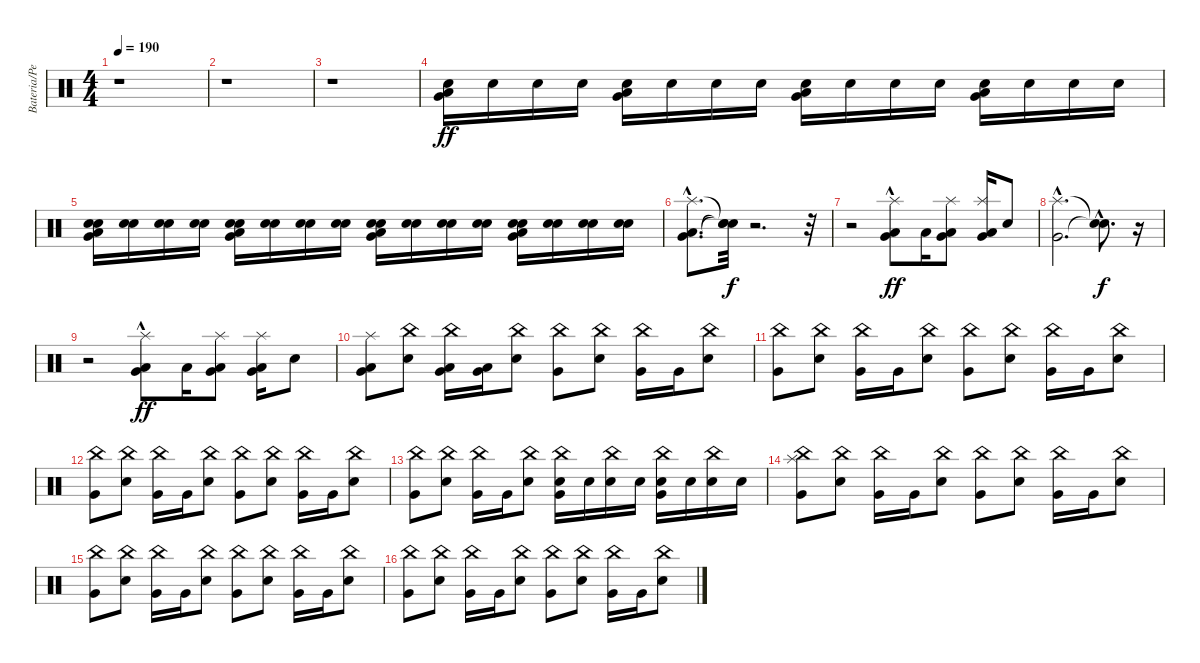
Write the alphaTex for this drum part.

\track ("Bateria/Percussion" "Bateria/Pe") {instrument percussion}
\staff {score}
\articulation defaults
\ts (4 4)
\tempo 190
\clef neutral
\ks c
r.1{dy ff} |
r.1 |
r.1 |
("Snare (hit) 2" "Very Low Tom (hit)" "Low Tom (hit)").16 "Snare (hit) 2".16 "Snare (hit) 2".16 "Snare (hit) 2".16 ("Snare (hit) 2" "Very Low Tom (hit)" "Low Tom (hit)").16 "Snare (hit) 2".16 "Snare (hit) 2".16 "Snare (hit) 2".16 ("Snare (hit) 2" "Very Low Tom (hit)" "Low Tom (hit)").16 "Snare (hit) 2".16 "Snare (hit) 2".16 "Snare (hit) 2".16 ("Snare (hit) 2" "Very Low Tom (hit)" "Low Tom (hit)").16 "Snare (hit) 2".16 "Snare (hit) 2".16 "Snare (hit) 2".16 |
("Snare (hit) 2" "Electric Snare (hit)" "Very Low Tom (hit)" "Low Tom (hit)").16 ("Snare (hit) 2" "Electric Snare (hit)").16 ("Snare (hit) 2" "Electric Snare (hit)").16 ("Snare (hit) 2" "Electric Snare (hit)").16 ("Snare (hit) 2" "Electric Snare (hit)" "Very Low Tom (hit)" "Low Tom (hit)").16 ("Snare (hit) 2" "Electric Snare (hit)").16 ("Snare (hit) 2" "Electric Snare (hit)").16 ("Snare (hit) 2" "Electric Snare (hit)").16 ("Snare (hit) 2" "Electric Snare (hit)" "Very Low Tom (hit)" "Low Tom (hit)").16 ("Snare (hit) 2" "Electric Snare (hit)").16 ("Snare (hit) 2" "Electric Snare (hit)").16 ("Snare (hit) 2" "Electric Snare (hit)").16 ("Snare (hit) 2" "Electric Snare (hit)" "Very Low Tom (hit)" "Low Tom (hit)").16 ("Snare (hit) 2" "Electric Snare (hit)").16 ("Snare (hit) 2" "Electric Snare (hit)").16 ("Snare (hit) 2" "Electric Snare (hit)").16 |
("Very Low Tom (hit)"{hac} "Low Tom (hit)"{hac} "Splash (hit)"{hac}).8{d} ("Snare (hit)"{t} "Snare (hit)"{t} "Snare (hit)"{t}).32{dy f} r.2{d} r.32 |
r.2 ("Very Low Tom (hit)"{hac} "Low Tom (hit)" "Splash (hit)"{hac}).8{dy ff} "Low Floor Tom (hit)".16 ("Low Floor Tom (hit)" "Very Low Tom (hit)" "Splash (hit)").8 ("Low Floor Tom (hit)" "Very Low Tom (hit)" "Splash (hit)").16 "Electric Snare (hit)".8 |
("Very Low Tom (hit)"{hac} "Splash (hit)"{hac}).2{d} ("Snare (hit)"{hac t} "Snare (hit)"{hac t}).8{d dy f} r.16 |
r.2 ("Very Low Tom (hit)"{hac} "Low Tom (hit)" "Splash (hit)"{hac}).8{dy ff} "Low Tom (hit)".16 ("Very Low Tom (hit)" "Low Tom (hit)" "Splash (hit)").8 ("Very Low Tom (hit)" "Low Tom (hit)" "Splash (hit)").16 "Electric Snare (hit)".8 |
("Very Low Tom (hit)" "Low Tom (hit)" "Splash (hit)").8 ("Electric Snare (hit)" "China (hit)").8 ("Very Low Tom (hit)" "Low Tom (hit)" "China (hit)").16 ("Very Low Tom (hit)" "Low Tom (hit)").16 ("Electric Snare (hit)" "China (hit)").8 ("Very Low Tom (hit)" "China (hit)").8 ("Electric Snare (hit)" "China (hit)").8 ("Very Low Tom (hit)" "China (hit)").16 "Very Low Tom (hit)".16 ("Electric Snare (hit)" "China (hit)").8 |
("Very Low Tom (hit)" "China (hit)").8 ("Electric Snare (hit)" "China (hit)").8 ("Very Low Tom (hit)" "China (hit)").16 "Very Low Tom (hit)".16 ("Electric Snare (hit)" "China (hit)").8 ("Very Low Tom (hit)" "China (hit)").8 ("Electric Snare (hit)" "China (hit)").8 ("Very Low Tom (hit)" "China (hit)").16 "Very Low Tom (hit)".16 ("Electric Snare (hit)" "China (hit)").8 |
("Very Low Tom (hit)" "China (hit)").8 ("Electric Snare (hit)" "China (hit)").8 ("Very Low Tom (hit)" "China (hit)").16 "Very Low Tom (hit)".16 ("Electric Snare (hit)" "China (hit)").8 ("Very Low Tom (hit)" "China (hit)").8 ("Electric Snare (hit)" "China (hit)").8 ("Very Low Tom (hit)" "China (hit)").16 "Very Low Tom (hit)".16 ("Electric Snare (hit)" "China (hit)").8 |
("Very Low Tom (hit)" "China (hit)").8 ("Electric Snare (hit)" "China (hit)").8 ("Very Low Tom (hit)" "China (hit)").16 "Very Low Tom (hit)".16 ("Electric Snare (hit)" "China (hit)").8 ("Snare (hit) 2" "Very Low Tom (hit)" "China (hit)").16 "Snare (hit) 2".16 ("Snare (hit) 2" "China (hit)").16 "Snare (hit) 2".16 ("Snare (hit) 2" "Very Low Tom (hit)" "China (hit)").16 "Snare (hit) 2".16 ("Snare (hit) 2" "China (hit)").16 "Snare (hit) 2".16 |
("Very Low Tom (hit)" "Splash (hit)" "China (hit)").8 ("Electric Snare (hit)" "China (hit)").8 ("Very Low Tom (hit)" "China (hit)").16 "Very Low Tom (hit)".16 ("Electric Snare (hit)" "China (hit)").8 ("Very Low Tom (hit)" "China (hit)").8 ("Electric Snare (hit)" "China (hit)").8 ("Very Low Tom (hit)" "China (hit)").16 "Very Low Tom (hit)".16 ("Electric Snare (hit)" "China (hit)").8 |
("Very Low Tom (hit)" "China (hit)").8 ("Electric Snare (hit)" "China (hit)").8 ("Very Low Tom (hit)" "China (hit)").16 "Very Low Tom (hit)".16 ("Electric Snare (hit)" "China (hit)").8 ("Very Low Tom (hit)" "China (hit)").8 ("Electric Snare (hit)" "China (hit)").8 ("Very Low Tom (hit)" "China (hit)").16 "Very Low Tom (hit)".16 ("Electric Snare (hit)" "China (hit)").8 |
("Very Low Tom (hit)" "China (hit)").8 ("Electric Snare (hit)" "China (hit)").8 ("Very Low Tom (hit)" "China (hit)").16 "Very Low Tom (hit)".16 ("Electric Snare (hit)" "China (hit)").8 ("Very Low Tom (hit)" "China (hit)").8 ("Electric Snare (hit)" "China (hit)").8 ("Very Low Tom (hit)" "China (hit)").16 "Very Low Tom (hit)".16 ("Electric Snare (hit)" "China (hit)").8
